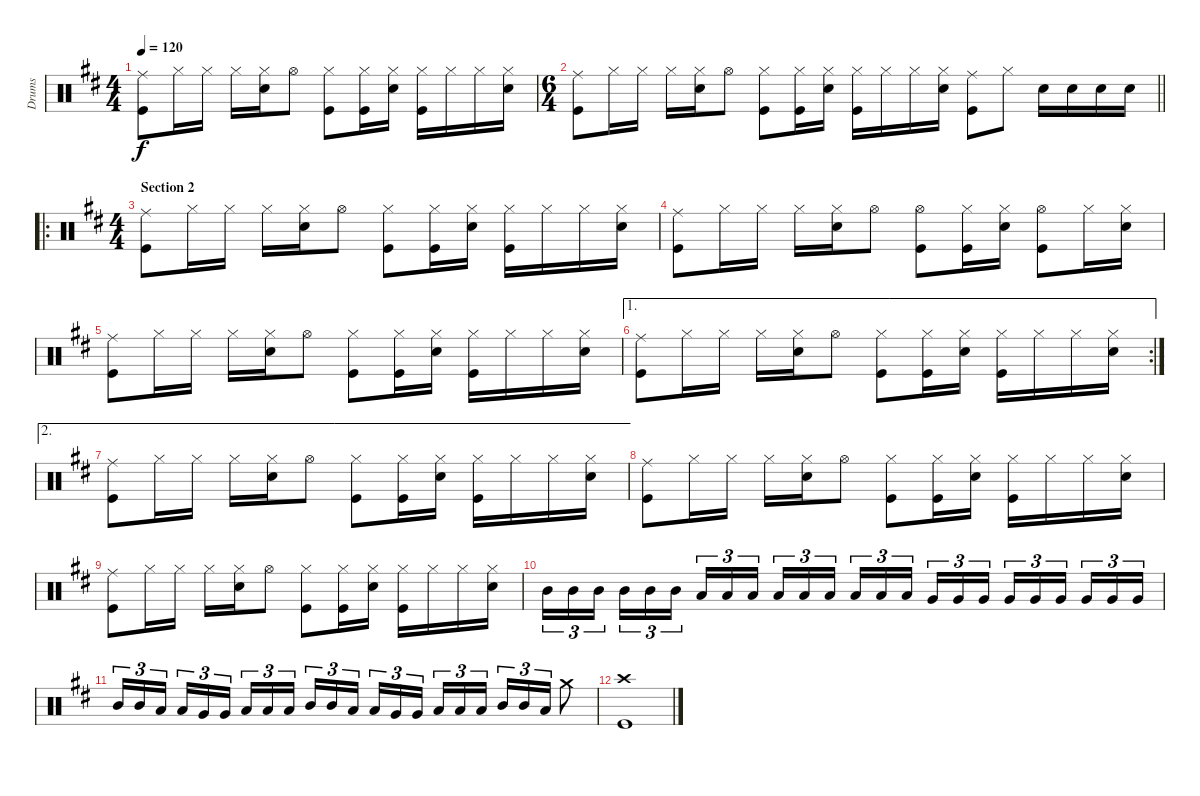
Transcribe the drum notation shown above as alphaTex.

\track ("Drums" "Drums") {instrument percussion}
\staff {score}
\articulation defaults
\ts (4 4)
\tempo 120
\clef neutral
\ks d
("Ride (middle)" "Kick (hit)").8{dy f} "Hi-Hat (closed)".16 "Hi-Hat (closed)".16 "Hi-Hat (closed)".16 ("Hi-Hat (closed)" "Snare (hit) 2").16 "Hi-Hat (open)".8 ("Hi-Hat (closed)" "Kick (hit)").8 ("Hi-Hat (closed)" "Kick (hit)").16 ("Hi-Hat (closed)" "Snare (hit) 2").16 ("Hi-Hat (closed)" "Kick (hit)").16 "Hi-Hat (closed)".16 "Hi-Hat (closed)".16 ("Hi-Hat (closed)" "Snare (hit) 2").16 |
\ts (6 4)
\barLineRight lightlight
("Ride (middle)" "Kick (hit)").8 "Hi-Hat (closed)".16 "Hi-Hat (closed)".16 "Hi-Hat (closed)".16 ("Hi-Hat (closed)" "Snare (hit) 2").16 "Hi-Hat (open)".8 ("Hi-Hat (closed)" "Kick (hit)").8 ("Hi-Hat (closed)" "Kick (hit)").16 ("Hi-Hat (closed)" "Snare (hit) 2").16 ("Hi-Hat (closed)" "Kick (hit)").16 "Hi-Hat (closed)".16 "Hi-Hat (closed)".16 ("Hi-Hat (closed)" "Snare (hit) 2").16 ("Ride (middle)" "Kick (hit)").8 "Hi-Hat (closed)".8 "Snare (hit) 2".16 "Snare (hit) 2".16 "Snare (hit) 2".16 "Snare (hit) 2".16 |
\ro
\ts (4 4)
\section ("" "Section 2")
("Ride (middle)" "Kick (hit)").8 "Hi-Hat (closed)".16 "Hi-Hat (closed)".16 "Hi-Hat (closed)".16 ("Hi-Hat (closed)" "Snare (hit) 2").16 "Hi-Hat (open)".8 ("Hi-Hat (closed)" "Kick (hit)").8 ("Hi-Hat (closed)" "Kick (hit)").16 ("Hi-Hat (closed)" "Snare (hit) 2").16 ("Hi-Hat (closed)" "Kick (hit)").16 "Hi-Hat (closed)".16 "Hi-Hat (closed)".16 ("Hi-Hat (closed)" "Snare (hit) 2").16 |
("Ride (middle)" "Kick (hit)").8 "Hi-Hat (closed)".16 "Hi-Hat (closed)".16 "Hi-Hat (closed)".16 ("Hi-Hat (closed)" "Snare (hit) 2").16 "Hi-Hat (open)".8 ("Hi-Hat (open)" "Kick (hit)").8 ("Hi-Hat (closed)" "Kick (hit)").16 ("Hi-Hat (closed)" "Snare (hit) 2").16 ("Hi-Hat (open)" "Kick (hit)").8 "Hi-Hat (closed)".16 ("Hi-Hat (closed)" "Snare (hit) 2").16 |
("Ride (middle)" "Kick (hit)").8 "Hi-Hat (closed)".16 "Hi-Hat (closed)".16 "Hi-Hat (closed)".16 ("Hi-Hat (closed)" "Snare (hit) 2").16 "Hi-Hat (open)".8 ("Hi-Hat (closed)" "Kick (hit)").8 ("Hi-Hat (closed)" "Kick (hit)").16 ("Hi-Hat (closed)" "Snare (hit) 2").16 ("Hi-Hat (closed)" "Kick (hit)").16 "Hi-Hat (closed)".16 "Hi-Hat (closed)".16 ("Hi-Hat (closed)" "Snare (hit) 2").16 |
\ae 1
\rc 2
("Ride (middle)" "Kick (hit)").8 "Hi-Hat (closed)".16 "Hi-Hat (closed)".16 "Hi-Hat (closed)".16 ("Hi-Hat (closed)" "Snare (hit) 2").16 "Hi-Hat (open)".8 ("Hi-Hat (closed)" "Kick (hit)").8 ("Hi-Hat (closed)" "Kick (hit)").16 ("Hi-Hat (closed)" "Snare (hit) 2").16 ("Hi-Hat (closed)" "Kick (hit)").16 "Hi-Hat (closed)".16 "Hi-Hat (closed)".16 ("Hi-Hat (closed)" "Snare (hit) 2").16 |
\ae 2
("Ride (middle)" "Kick (hit)").8 "Hi-Hat (closed)".16 "Hi-Hat (closed)".16 "Hi-Hat (closed)".16 ("Hi-Hat (closed)" "Snare (hit) 2").16 "Hi-Hat (open)".8 ("Hi-Hat (closed)" "Kick (hit)").8 ("Hi-Hat (closed)" "Kick (hit)").16 ("Hi-Hat (closed)" "Snare (hit) 2").16 ("Hi-Hat (closed)" "Kick (hit)").16 "Hi-Hat (closed)".16 "Hi-Hat (closed)".16 ("Hi-Hat (closed)" "Snare (hit) 2").16 |
("Ride (middle)" "Kick (hit)").8 "Hi-Hat (closed)".16 "Hi-Hat (closed)".16 "Hi-Hat (closed)".16 ("Hi-Hat (closed)" "Snare (hit) 2").16 "Hi-Hat (open)".8 ("Hi-Hat (closed)" "Kick (hit)").8 ("Hi-Hat (closed)" "Kick (hit)").16 ("Hi-Hat (closed)" "Snare (hit) 2").16 ("Hi-Hat (closed)" "Kick (hit)").16 "Hi-Hat (closed)".16 "Hi-Hat (closed)".16 ("Hi-Hat (closed)" "Snare (hit) 2").16 |
("Ride (middle)" "Kick (hit)").8 "Hi-Hat (closed)".16 "Hi-Hat (closed)".16 "Hi-Hat (closed)".16 ("Hi-Hat (closed)" "Snare (hit) 2").16 "Hi-Hat (open)".8 ("Hi-Hat (closed)" "Kick (hit)").8 ("Hi-Hat (closed)" "Kick (hit)").16 ("Hi-Hat (closed)" "Snare (hit) 2").16 ("Hi-Hat (closed)" "Kick (hit)").16 "Hi-Hat (closed)".16 "Hi-Hat (closed)".16 ("Hi-Hat (closed)" "Snare (hit) 2").16 |
"Mid Tom (hit)".16{tu (3 2)} "Mid Tom (hit)".16{tu (3 2)} "Mid Tom (hit)".16{tu (3 2) beam splitsecondary} "Mid Tom (hit)".16{tu (3 2)} "Mid Tom (hit)".16{tu (3 2)} "Mid Tom (hit)".16{tu (3 2)} "Low Tom (hit)".16{tu (3 2)} "Low Tom (hit)".16{tu (3 2)} "Low Tom (hit)".16{tu (3 2) beam splitsecondary} "Low Tom (hit)".16{tu (3 2)} "Low Tom (hit)".16{tu (3 2)} "Low Tom (hit)".16{tu (3 2)} "Low Tom (hit)".16{tu (3 2)} "Low Tom (hit)".16{tu (3 2)} "Low Tom (hit)".16{tu (3 2) beam splitsecondary} "Very Low Tom (hit)".16{tu (3 2)} "Very Low Tom (hit)".16{tu (3 2)} "Very Low Tom (hit)".16{tu (3 2)} "Very Low Tom (hit)".16{tu (3 2)} "Very Low Tom (hit)".16{tu (3 2)} "Very Low Tom (hit)".16{tu (3 2) beam splitsecondary} "Very Low Tom (hit)".16{tu (3 2)} "Very Low Tom (hit)".16{tu (3 2)} "Very Low Tom (hit)".16{tu (3 2)} |
"Mid Tom (hit)".16{tu (3 2)} "Mid Tom (hit)".16{tu (3 2)} "Low Tom (hit)".16{tu (3 2) beam splitsecondary} "Low Tom (hit)".16{tu (3 2)} "Very Low Tom (hit)".16{tu (3 2)} "Very Low Tom (hit)".16{tu (3 2)} "Low Floor Tom (hit)".16{tu (3 2)} "Low Floor Tom (hit)".16{tu (3 2)} "Low Floor Tom (hit)".16{tu (3 2) beam splitsecondary} "Mid Tom (hit)".16{tu (3 2)} "Mid Tom (hit)".16{tu (3 2)} "Low Tom (hit)".16{tu (3 2)} "Low Tom (hit)".16{tu (3 2)} "Very Low Tom (hit)".16{tu (3 2)} "Very Low Tom (hit)".16{tu (3 2) beam splitsecondary} "Low Floor Tom (hit)".16{tu (3 2)} "Low Floor Tom (hit)".16{tu (3 2)} "Low Floor Tom (hit)".16{tu (3 2)} "Mid Tom (hit)".16{tu (3 2)} "Mid Tom (hit)".16{tu (3 2)} "Low Tom (hit)".16{tu (3 2)} "Crash medium (hit)".8 |
("Crash high (hit)" "Kick (hit)").1
